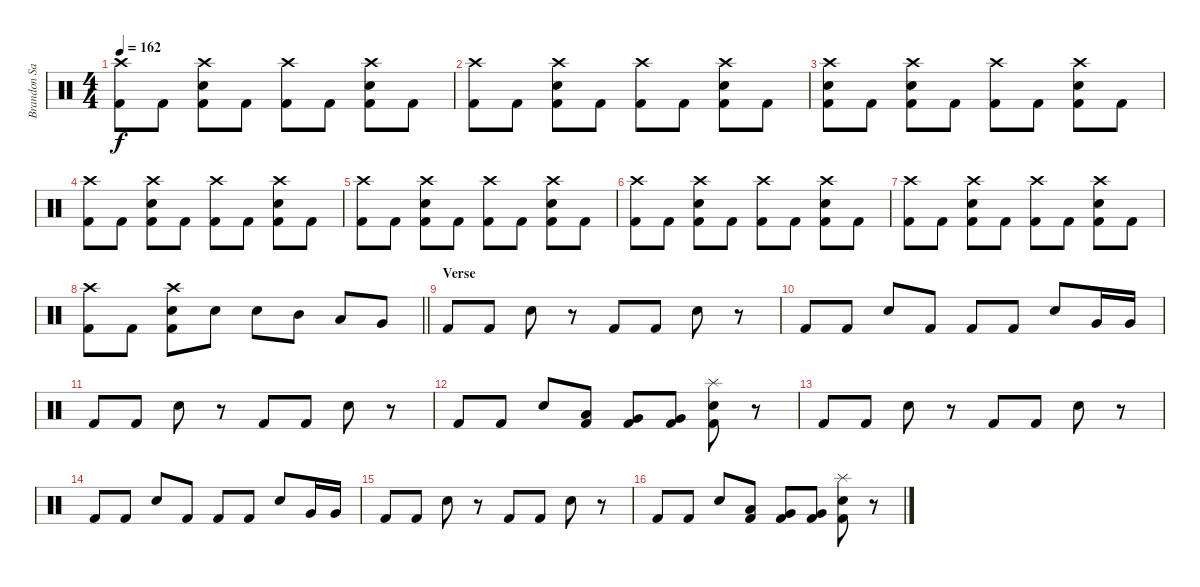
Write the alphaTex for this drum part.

\track ("Brandon Saller" "Brandon Sa") {instrument percussion}
\staff {score}
\articulation defaults
\ts (4 4)
\tempo 162
\clef neutral
\ks c
("Crash high (hit)" "Kick (hit) 2").8{dy f} "Kick (hit) 2".8 ("Crash high (hit)" "Electric Snare (hit)" "Kick (hit) 2").8 "Kick (hit) 2".8 ("Crash high (hit)" "Kick (hit) 2").8 "Kick (hit) 2".8 ("Crash high (hit)" "Electric Snare (hit)" "Kick (hit) 2").8 "Kick (hit) 2".8 |
("Crash high (hit)" "Kick (hit) 2").8 "Kick (hit) 2".8 ("Crash high (hit)" "Electric Snare (hit)" "Kick (hit) 2").8 "Kick (hit) 2".8 ("Crash high (hit)" "Kick (hit) 2").8 "Kick (hit) 2".8 ("Crash high (hit)" "Electric Snare (hit)" "Kick (hit) 2").8 "Kick (hit) 2".8 |
("Crash high (hit)" "Electric Snare (hit)" "Kick (hit) 2").8 "Kick (hit) 2".8 ("Crash high (hit)" "Electric Snare (hit)" "Kick (hit) 2").8 "Kick (hit) 2".8 ("Crash high (hit)" "Kick (hit) 2").8 "Kick (hit) 2".8 ("Crash high (hit)" "Electric Snare (hit)" "Kick (hit) 2").8 "Kick (hit) 2".8 |
("Crash high (hit)" "Kick (hit) 2").8 "Kick (hit) 2".8 ("Crash high (hit)" "Electric Snare (hit)" "Kick (hit) 2").8 "Kick (hit) 2".8 ("Crash high (hit)" "Kick (hit) 2").8 "Kick (hit) 2".8 ("Crash high (hit)" "Electric Snare (hit)" "Kick (hit) 2").8 "Kick (hit) 2".8 |
("Crash high (hit)" "Kick (hit) 2").8 "Kick (hit) 2".8 ("Crash high (hit)" "Electric Snare (hit)" "Kick (hit) 2").8 "Kick (hit) 2".8 ("Crash high (hit)" "Kick (hit) 2").8 "Kick (hit) 2".8 ("Crash high (hit)" "Electric Snare (hit)" "Kick (hit) 2").8 "Kick (hit) 2".8 |
("Crash high (hit)" "Kick (hit) 2").8 "Kick (hit) 2".8 ("Crash high (hit)" "Electric Snare (hit)" "Kick (hit) 2").8 "Kick (hit) 2".8 ("Crash high (hit)" "Kick (hit) 2").8 "Kick (hit) 2".8 ("Crash high (hit)" "Electric Snare (hit)" "Kick (hit) 2").8 "Kick (hit) 2".8 |
("Crash high (hit)" "Kick (hit) 2").8 "Kick (hit) 2".8 ("Crash high (hit)" "Electric Snare (hit)" "Kick (hit) 2").8 "Kick (hit) 2".8 ("Crash high (hit)" "Kick (hit) 2").8 "Kick (hit) 2".8 ("Crash high (hit)" "Electric Snare (hit)" "Kick (hit) 2").8 "Kick (hit) 2".8 |
\barLineRight lightlight
("Crash high (hit)" "Kick (hit) 2").8 "Kick (hit) 2".8 ("Crash high (hit)" "Electric Snare (hit)" "Kick (hit) 2").8 "Electric Snare (hit)".8 "Electric Snare (hit)".8 "Mid Tom (hit)".8 "Low Tom (hit)".8 "Very Low Tom (hit)".8 |
\section ("" "Verse")
"Kick (hit) 2".8 "Kick (hit) 2".8 "Electric Snare (hit)".8 r.8 "Kick (hit) 2".8 "Kick (hit) 2".8 "Electric Snare (hit)".8 r.8 |
"Kick (hit) 2".8 "Kick (hit) 2".8 "Electric Snare (hit)".8 "Kick (hit) 2".8 "Kick (hit) 2".8 "Kick (hit) 2".8 "Electric Snare (hit)".8 "Very Low Tom (hit)".16 "Very Low Tom (hit)".16 |
"Kick (hit) 2".8 "Kick (hit) 2".8 "Electric Snare (hit)".8 r.8 "Kick (hit) 2".8 "Kick (hit) 2".8 "Electric Snare (hit)".8 r.8 |
"Kick (hit) 2".8 "Kick (hit) 2".8 "Electric Snare (hit)".8 ("Low Tom (hit)" "Kick (hit) 2").8 ("Very Low Tom (hit)" "Kick (hit) 2").8 ("Very Low Tom (hit)" "Kick (hit) 2").8 ("Splash (hit)" "Electric Snare (hit)" "Kick (hit) 2").8 r.8 |
"Kick (hit) 2".8 "Kick (hit) 2".8 "Electric Snare (hit)".8 r.8 "Kick (hit) 2".8 "Kick (hit) 2".8 "Electric Snare (hit)".8 r.8 |
"Kick (hit) 2".8 "Kick (hit) 2".8 "Electric Snare (hit)".8 "Kick (hit) 2".8 "Kick (hit) 2".8 "Kick (hit) 2".8 "Electric Snare (hit)".8 "Very Low Tom (hit)".16 "Very Low Tom (hit)".16 |
"Kick (hit) 2".8 "Kick (hit) 2".8 "Electric Snare (hit)".8 r.8 "Kick (hit) 2".8 "Kick (hit) 2".8 "Electric Snare (hit)".8 r.8 |
"Kick (hit) 2".8 "Kick (hit) 2".8 "Electric Snare (hit)".8 ("Low Tom (hit)" "Kick (hit) 2").8 ("Very Low Tom (hit)" "Kick (hit) 2").8 ("Very Low Tom (hit)" "Kick (hit) 2").8 ("Splash (hit)" "Electric Snare (hit)" "Kick (hit) 2").8 r.8
